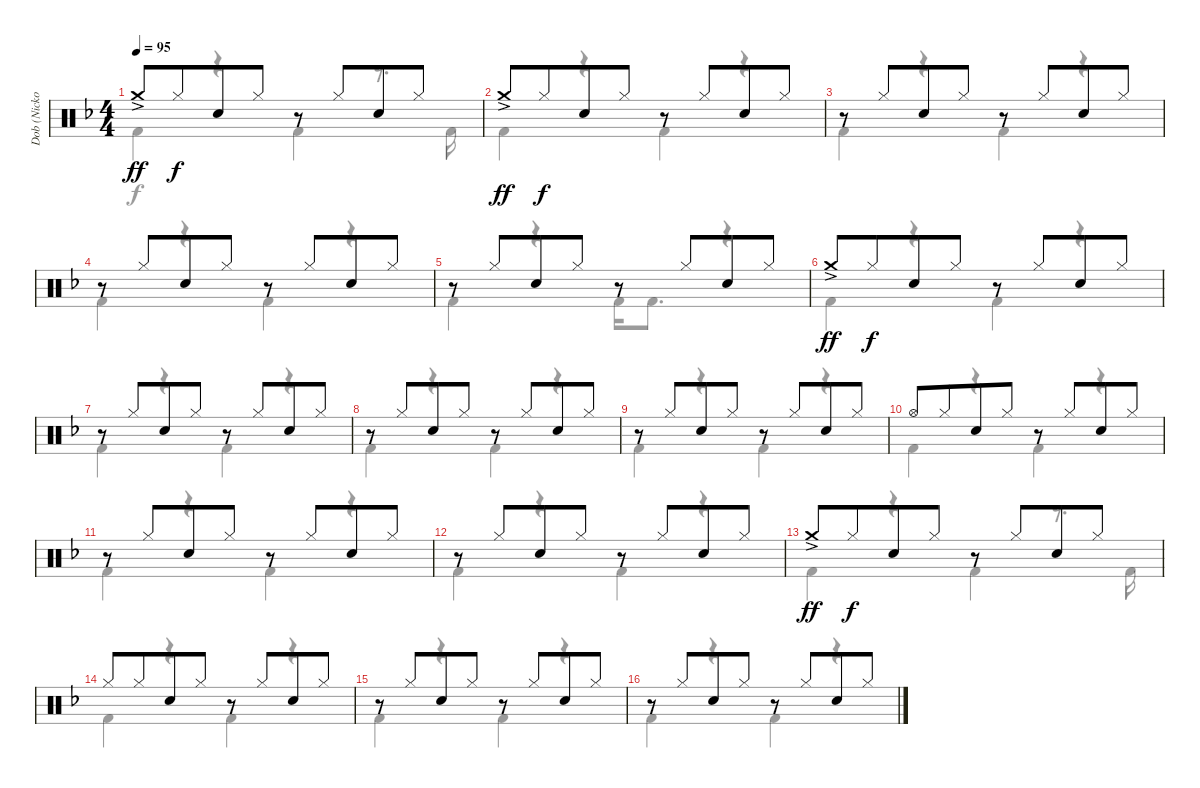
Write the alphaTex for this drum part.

\track ("Dob (Nicko McBrain)" "Dob (Nicko") {instrument percussion}
\staff {score}
\articulation defaults
\voice
\ts (4 4)
\tempo 95
\clef neutral
\ks f "Crash medium (hit)"{ac}.8{dy ff} "Hi-Hat (closed)".8{dy f beam merge} "Electric Snare (hit)".8 "Hi-Hat (closed)".8
r.8 "Hi-Hat (closed)".8{beam Up beam merge} "Electric Snare (hit)".8{beam Up} "Hi-Hat (closed)".8{beam Up} |
"Crash medium (hit)"{ac}.8{dy ff} "Hi-Hat (closed)".8{dy f beam Up beam merge} "Electric Snare (hit)".8{beam Up} "Hi-Hat (closed)".8{beam Up} r.8 "Hi-Hat (closed)".8{beam Up beam merge} "Electric Snare (hit)".8{beam Up} "Hi-Hat (closed)".8{beam Up} |
r.8 "Hi-Hat (closed)".8{beam Up beam merge} "Electric Snare (hit)".8{beam Up} "Hi-Hat (closed)".8{beam Up} r.8 "Hi-Hat (closed)".8{beam Up beam merge} "Electric Snare (hit)".8{beam Up} "Hi-Hat (closed)".8{beam Up} |
r.8 "Hi-Hat (closed)".8{beam Up beam merge} "Electric Snare (hit)".8{beam Up} "Hi-Hat (closed)".8{beam Up} r.8 "Hi-Hat (closed)".8{beam Up beam merge} "Electric Snare (hit)".8{beam Up} "Hi-Hat (closed)".8{beam Up} |
r.8 "Hi-Hat (closed)".8{beam Up beam merge} "Electric Snare (hit)".8{beam Up} "Hi-Hat (closed)".8{beam Up} r.8 "Hi-Hat (closed)".8{beam Up beam merge} "Electric Snare (hit)".8{beam Up} "Hi-Hat (closed)".8{beam Up} |
"Crash medium (hit)"{ac}.8{dy ff} "Hi-Hat (closed)".8{dy f beam merge} "Electric Snare (hit)".8 "Hi-Hat (closed)".8 r.8 "Hi-Hat (closed)".8{beam Up beam merge} "Electric Snare (hit)".8{beam Up} "Hi-Hat (closed)".8{beam Up} |
r.8{beam Up} "Hi-Hat (closed)".8{beam Up beam merge} "Electric Snare (hit)".8{beam Up} "Hi-Hat (closed)".8{beam Up} r.8 "Hi-Hat (closed)".8{beam Up beam merge} "Electric Snare (hit)".8{beam Up} "Hi-Hat (closed)".8{beam Up} |
r.8 "Hi-Hat (closed)".8{beam Up beam merge} "Electric Snare (hit)".8{beam Up} "Hi-Hat (closed)".8{beam Up} r.8 "Hi-Hat (closed)".8{beam Up beam merge} "Electric Snare (hit)".8{beam Up} "Hi-Hat (closed)".8{beam Up} |
r.8 "Hi-Hat (closed)".8{beam Up beam merge} "Electric Snare (hit)".8{beam Up} "Hi-Hat (closed)".8{beam Up} r.8 "Hi-Hat (closed)".8{beam Up beam merge} "Electric Snare (hit)".8{beam Up} "Hi-Hat (closed)".8{beam Up} |
"Hi-Hat (open)".8{beam Up} "Hi-Hat (closed)".8{beam Up beam merge} "Electric Snare (hit)".8{beam Up} "Hi-Hat (closed)".8{beam Up} r.8 "Hi-Hat (closed)".8{beam Up beam merge} "Electric Snare (hit)".8{beam Up} "Hi-Hat (closed)".8{beam Up} |
r.8 "Hi-Hat (closed)".8{beam Up beam merge} "Electric Snare (hit)".8{beam Up} "Hi-Hat (closed)".8{beam Up} r.8 "Hi-Hat (closed)".8{beam Up beam merge} "Electric Snare (hit)".8{beam Up} "Hi-Hat (closed)".8{beam Up} |
r.8 "Hi-Hat (closed)".8{beam Up beam merge} "Electric Snare (hit)".8{beam Up} "Hi-Hat (closed)".8{beam Up} r.8 "Hi-Hat (closed)".8{beam Up beam merge} "Electric Snare (hit)".8{beam Up} "Hi-Hat (closed)".8{beam Up} |
"Crash medium (hit)"{ac}.8{dy ff} "Hi-Hat (closed)".8{dy f beam merge} "Electric Snare (hit)".8 "Hi-Hat (closed)".8 r.8 "Hi-Hat (closed)".8{beam Up beam merge} "Electric Snare (hit)".8{beam Up} "Hi-Hat (closed)".8{beam Up} |
"Hi-Hat (closed)".8{beam Up} "Hi-Hat (closed)".8{beam Up beam merge} "Electric Snare (hit)".8{beam Up} "Hi-Hat (closed)".8{beam Up} r.8 "Hi-Hat (closed)".8{beam Up beam merge} "Electric Snare (hit)".8{beam Up} "Hi-Hat (closed)".8{beam Up} |
r.8 "Hi-Hat (closed)".8{beam Up beam merge} "Electric Snare (hit)".8{beam Up} "Hi-Hat (closed)".8{beam Up} r.8 "Hi-Hat (closed)".8{beam Up beam merge} "Electric Snare (hit)".8{beam Up} "Hi-Hat (closed)".8{beam Up} |
r.8 "Hi-Hat (closed)".8{beam Up beam merge} "Electric Snare (hit)".8{beam Up} "Hi-Hat (closed)".8{beam Up} r.8 "Hi-Hat (closed)".8{beam Up beam merge} "Electric Snare (hit)".8{beam Up} "Hi-Hat (closed)".8{beam Up}
\voice
\clef neutral
\ottava regular
\simile none
\ks f "Kick (hit) 2".4{dy f}
r.4 "Kick (hit) 2".4 r.8{d} "Kick (hit) 2".16 |
"Kick (hit) 2".4 r.4 "Kick (hit) 2".4 r.4 |
"Kick (hit) 2".4 r.4 "Kick (hit) 2".4 r.4 |
"Kick (hit) 2".4 r.4 "Kick (hit) 2".4 r.4 |
"Kick (hit) 2".4 r.4 "Kick (hit) 2".16 "Kick (hit) 2".8{d} r.4 |
"Kick (hit) 2".4 r.4 "Kick (hit) 2".4 r.4 |
"Kick (hit) 2".4 r.4 "Kick (hit) 2".4 r.4 |
"Kick (hit) 2".4 r.4 "Kick (hit) 2".4 r.4 |
"Kick (hit) 2".4 r.4 "Kick (hit) 2".4 r.4 |
"Kick (hit) 2".4 r.4 "Kick (hit) 2".4 r.4 |
"Kick (hit) 2".4 r.4 "Kick (hit) 2".4 r.4 |
"Kick (hit) 2".4 r.4 "Kick (hit) 2".4 r.4 |
"Kick (hit) 2".4 r.4 "Kick (hit) 2".4 r.8{d} "Kick (hit) 2".16 |
"Kick (hit) 2".4 r.4 "Kick (hit) 2".4 r.4 |
"Kick (hit) 2".4 r.4 "Kick (hit) 2".4 r.4 |
"Kick (hit) 2".4 r.4 "Kick (hit) 2".4 r.4
